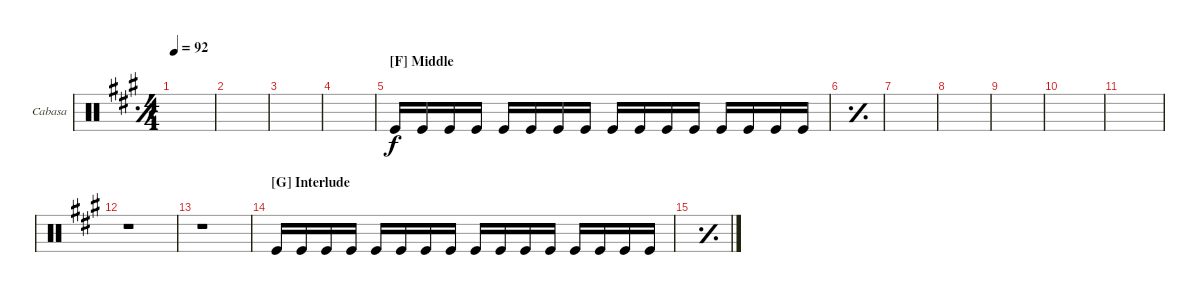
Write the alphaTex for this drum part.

\defaultSystemsLayout 4
\bracketExtendMode groupsimilarinstruments
\firstSystemTrackNameOrientation horizontal
\otherSystemsTrackNameOrientation horizontal
\track ("Cabasa" "Cabasa") {instrument percussion}
\staff {score}
\articulation defaults
\ts (4 4)
\tempo 92
\clef neutral
\simile simple
\ks a
|
|
|
|
\section ("F" "Middle")
\simile none "Kick (hit)".16 "Kick (hit)".16 "Kick (hit)".16 "Kick (hit)".16 "Kick (hit)".16 "Kick (hit)".16 "Kick (hit)".16 "Kick (hit)".16 "Kick (hit)".16 "Kick (hit)".16 "Kick (hit)".16 "Kick (hit)".16 "Kick (hit)".16 "Kick (hit)".16 "Kick (hit)".16 "Kick (hit)".16
|
\simile simple
|
|
|
|
|
|
r.1 |
r.1 |
\section ("G" "Interlude")
"Kick (hit)".16 "Kick (hit)".16 "Kick (hit)".16 "Kick (hit)".16 "Kick (hit)".16 "Kick (hit)".16 "Kick (hit)".16 "Kick (hit)".16 "Kick (hit)".16 "Kick (hit)".16 "Kick (hit)".16 "Kick (hit)".16 "Kick (hit)".16 "Kick (hit)".16 "Kick (hit)".16 "Kick (hit)".16 |
\simile simple
